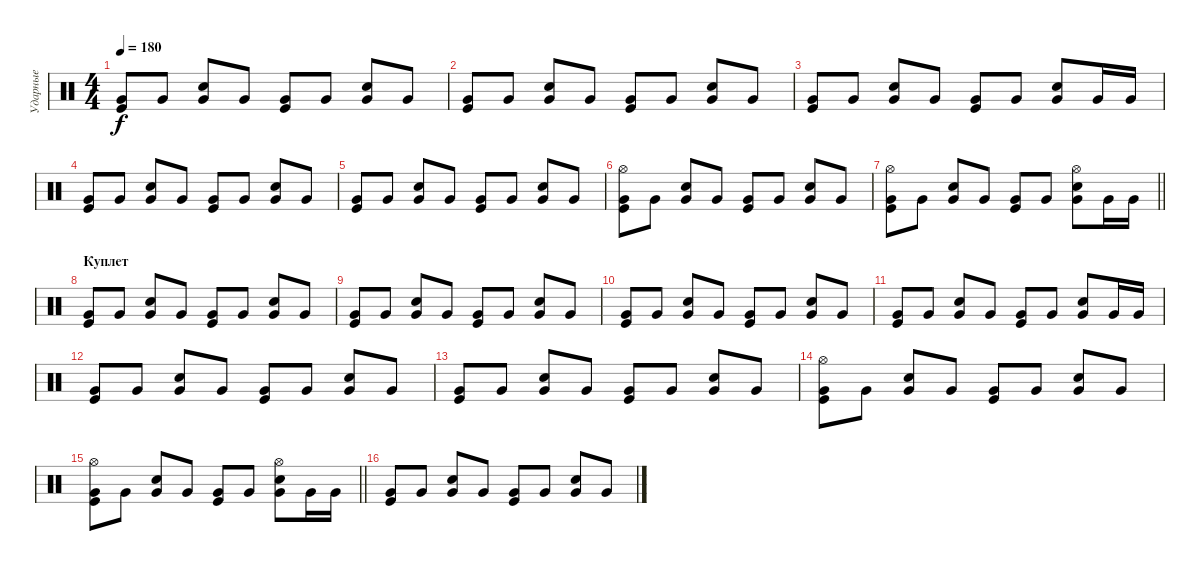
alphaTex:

\track ("Ударные" "Ударные") {instrument percussion}
\staff {score}
\articulation defaults
\ts (4 4)
\tempo 180
\clef neutral
\ks c
("Very Low Tom (hit)" "Kick (hit)").8{dy f} "Very Low Tom (hit)".8 ("Very Low Tom (hit)" "Electric Snare (hit)").8 "Very Low Tom (hit)".8 ("Very Low Tom (hit)" "Kick (hit)").8 "Very Low Tom (hit)".8 ("Very Low Tom (hit)" "Electric Snare (hit)").8 "Very Low Tom (hit)".8 |
("Very Low Tom (hit)" "Kick (hit)").8 "Very Low Tom (hit)".8 ("Very Low Tom (hit)" "Electric Snare (hit)").8 "Very Low Tom (hit)".8 ("Very Low Tom (hit)" "Kick (hit)").8 "Very Low Tom (hit)".8 ("Very Low Tom (hit)" "Electric Snare (hit)").8 "Very Low Tom (hit)".8 |
("Very Low Tom (hit)" "Kick (hit)").8 "Very Low Tom (hit)".8 ("Very Low Tom (hit)" "Electric Snare (hit)").8 "Very Low Tom (hit)".8 ("Very Low Tom (hit)" "Kick (hit)").8 "Very Low Tom (hit)".8 ("Very Low Tom (hit)" "Electric Snare (hit)").8 "Very Low Tom (hit)".16 "Very Low Tom (hit)".16 |
("Very Low Tom (hit)" "Kick (hit)").8 "Very Low Tom (hit)".8 ("Very Low Tom (hit)" "Electric Snare (hit)").8 "Very Low Tom (hit)".8 ("Very Low Tom (hit)" "Kick (hit)").8 "Very Low Tom (hit)".8 ("Very Low Tom (hit)" "Electric Snare (hit)").8 "Very Low Tom (hit)".8 |
("Very Low Tom (hit)" "Kick (hit)").8 "Very Low Tom (hit)".8 ("Very Low Tom (hit)" "Electric Snare (hit)").8 "Very Low Tom (hit)".8 ("Very Low Tom (hit)" "Kick (hit)").8 "Very Low Tom (hit)".8 ("Very Low Tom (hit)" "Electric Snare (hit)").8 "Very Low Tom (hit)".8 |
("Very Low Tom (hit)" "Kick (hit)" "Hi-Hat (open)").8 "Very Low Tom (hit)".8 ("Very Low Tom (hit)" "Electric Snare (hit)").8 "Very Low Tom (hit)".8 ("Very Low Tom (hit)" "Kick (hit)").8 "Very Low Tom (hit)".8 ("Very Low Tom (hit)" "Electric Snare (hit)").8 "Very Low Tom (hit)".8 |
\barLineRight lightlight
("Very Low Tom (hit)" "Kick (hit)" "Hi-Hat (open)").8 "Very Low Tom (hit)".8 ("Very Low Tom (hit)" "Electric Snare (hit)").8 "Very Low Tom (hit)".8 ("Very Low Tom (hit)" "Kick (hit)").8 "Very Low Tom (hit)".8 ("Very Low Tom (hit)" "Electric Snare (hit)" "Hi-Hat (open)").8 "Very Low Tom (hit)".16 "Very Low Tom (hit)".16 |
\section ("" "Куплет")
("Very Low Tom (hit)" "Kick (hit)").8 "Very Low Tom (hit)".8 ("Very Low Tom (hit)" "Electric Snare (hit)").8 "Very Low Tom (hit)".8 ("Very Low Tom (hit)" "Kick (hit)").8 "Very Low Tom (hit)".8 ("Very Low Tom (hit)" "Electric Snare (hit)").8 "Very Low Tom (hit)".8 |
("Very Low Tom (hit)" "Kick (hit)").8 "Very Low Tom (hit)".8 ("Very Low Tom (hit)" "Electric Snare (hit)").8 "Very Low Tom (hit)".8 ("Very Low Tom (hit)" "Kick (hit)").8 "Very Low Tom (hit)".8 ("Very Low Tom (hit)" "Electric Snare (hit)").8 "Very Low Tom (hit)".8 |
("Very Low Tom (hit)" "Kick (hit)").8 "Very Low Tom (hit)".8 ("Very Low Tom (hit)" "Electric Snare (hit)").8 "Very Low Tom (hit)".8 ("Very Low Tom (hit)" "Kick (hit)").8 "Very Low Tom (hit)".8 ("Very Low Tom (hit)" "Electric Snare (hit)").8 "Very Low Tom (hit)".8 |
("Very Low Tom (hit)" "Kick (hit)").8 "Very Low Tom (hit)".8 ("Very Low Tom (hit)" "Electric Snare (hit)").8 "Very Low Tom (hit)".8 ("Very Low Tom (hit)" "Kick (hit)").8 "Very Low Tom (hit)".8 ("Very Low Tom (hit)" "Electric Snare (hit)").8 "Very Low Tom (hit)".16 "Very Low Tom (hit)".16 |
("Very Low Tom (hit)" "Kick (hit)").8 "Very Low Tom (hit)".8 ("Very Low Tom (hit)" "Electric Snare (hit)").8 "Very Low Tom (hit)".8 ("Very Low Tom (hit)" "Kick (hit)").8 "Very Low Tom (hit)".8 ("Very Low Tom (hit)" "Electric Snare (hit)").8 "Very Low Tom (hit)".8 |
("Very Low Tom (hit)" "Kick (hit)").8 "Very Low Tom (hit)".8 ("Very Low Tom (hit)" "Electric Snare (hit)").8 "Very Low Tom (hit)".8 ("Very Low Tom (hit)" "Kick (hit)").8 "Very Low Tom (hit)".8 ("Very Low Tom (hit)" "Electric Snare (hit)").8 "Very Low Tom (hit)".8 |
("Very Low Tom (hit)" "Kick (hit)" "Hi-Hat (open)").8 "Very Low Tom (hit)".8 ("Very Low Tom (hit)" "Electric Snare (hit)").8 "Very Low Tom (hit)".8 ("Very Low Tom (hit)" "Kick (hit)").8 "Very Low Tom (hit)".8 ("Very Low Tom (hit)" "Electric Snare (hit)").8 "Very Low Tom (hit)".8 |
\barLineRight lightlight
("Very Low Tom (hit)" "Kick (hit)" "Hi-Hat (open)").8 "Very Low Tom (hit)".8 ("Very Low Tom (hit)" "Electric Snare (hit)").8 "Very Low Tom (hit)".8 ("Very Low Tom (hit)" "Kick (hit)").8 "Very Low Tom (hit)".8 ("Very Low Tom (hit)" "Electric Snare (hit)" "Hi-Hat (open)").8 "Very Low Tom (hit)".16 "Very Low Tom (hit)".16 |
\section ("" " ")
("Very Low Tom (hit)" "Kick (hit)").8 "Very Low Tom (hit)".8 ("Very Low Tom (hit)" "Electric Snare (hit)").8 "Very Low Tom (hit)".8 ("Very Low Tom (hit)" "Kick (hit)").8 "Very Low Tom (hit)".8 ("Very Low Tom (hit)" "Electric Snare (hit)").8 "Very Low Tom (hit)".8
